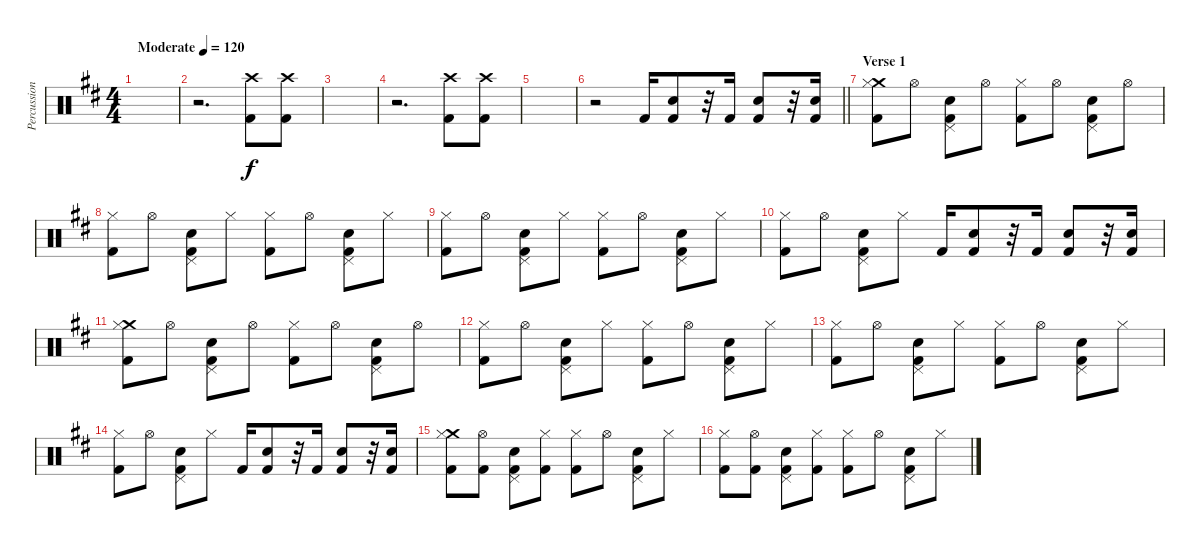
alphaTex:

\track ("Percussion: Boz Burrell" "Percussion") {instrument percussion}
\staff {score}
\articulation defaults
\ts (4 4)
\tempo (120 "Moderate")
\tempo 122
\tempo (120 "Moderate")
\clef neutral
\ks d
|
r.2{d} ("Crash high (hit)" "Kick (hit) 2").8 ("Crash high (hit)" "Kick (hit) 2").8 |
|
r.2{d} ("Crash high (hit)" "Kick (hit) 2").8 ("Crash high (hit)" "Kick (hit) 2").8 |
|
\barLineRight lightlight
r.2 "Kick (hit) 2".16 ("Snare (hit) 2" "Kick (hit) 2").8 r.32 "Kick (hit) 2".16 ("Snare (hit) 2" "Kick (hit) 2").8 r.32 ("Electric Snare (hit)" "Kick (hit) 2").16 |
\section ("" "Verse 1")
("Crash medium (hit)" "Hi-Hat (closed)" "Kick (hit) 2").8 "Hi-Hat (open)".8 ("Pedal Hi-Hat (hit)" "Snare (hit) 2" "Kick (hit) 2").8 "Hi-Hat (open)".8 ("Hi-Hat (closed)" "Kick (hit) 2").8 "Hi-Hat (open)".8 ("Pedal Hi-Hat (hit)" "Snare (hit) 2" "Kick (hit) 2").8 "Hi-Hat (open)".8 |
("Hi-Hat (closed)" "Kick (hit) 2").8 "Hi-Hat (open)".8 ("Pedal Hi-Hat (hit)" "Snare (hit) 2" "Kick (hit) 2").8 "Hi-Hat (closed)".8 ("Hi-Hat (closed)" "Kick (hit) 2").8 "Hi-Hat (open)".8 ("Pedal Hi-Hat (hit)" "Snare (hit) 2" "Kick (hit) 2").8 "Hi-Hat (closed)".8 |
("Hi-Hat (closed)" "Kick (hit) 2").8 "Hi-Hat (open)".8 ("Pedal Hi-Hat (hit)" "Snare (hit) 2" "Kick (hit) 2").8 "Hi-Hat (closed)".8 ("Hi-Hat (closed)" "Kick (hit) 2").8 "Hi-Hat (open)".8 ("Pedal Hi-Hat (hit)" "Snare (hit) 2" "Kick (hit) 2").8 "Hi-Hat (closed)".8 |
("Hi-Hat (closed)" "Kick (hit) 2").8 "Hi-Hat (open)".8 ("Pedal Hi-Hat (hit)" "Snare (hit) 2" "Kick (hit) 2").8 "Hi-Hat (closed)".8 "Kick (hit) 2".16 ("Snare (hit) 2" "Kick (hit) 2").8 r.32 "Kick (hit) 2".16 ("Snare (hit) 2" "Kick (hit) 2").8 r.32 ("Electric Snare (hit)" "Kick (hit) 2").16 |
("Crash medium (hit)" "Hi-Hat (closed)" "Kick (hit) 2").8 "Hi-Hat (open)".8 ("Pedal Hi-Hat (hit)" "Snare (hit) 2" "Kick (hit) 2").8 "Hi-Hat (open)".8 ("Hi-Hat (closed)" "Kick (hit) 2").8 "Hi-Hat (open)".8 ("Pedal Hi-Hat (hit)" "Snare (hit) 2" "Kick (hit) 2").8 "Hi-Hat (open)".8 |
("Hi-Hat (closed)" "Kick (hit) 2").8 "Hi-Hat (open)".8 ("Pedal Hi-Hat (hit)" "Snare (hit) 2" "Kick (hit) 2").8 "Hi-Hat (closed)".8 ("Hi-Hat (closed)" "Kick (hit) 2").8 "Hi-Hat (open)".8 ("Pedal Hi-Hat (hit)" "Snare (hit) 2" "Kick (hit) 2").8 "Hi-Hat (closed)".8 |
("Hi-Hat (closed)" "Kick (hit) 2").8 "Hi-Hat (open)".8 ("Pedal Hi-Hat (hit)" "Snare (hit) 2" "Kick (hit) 2").8 "Hi-Hat (closed)".8 ("Hi-Hat (closed)" "Kick (hit) 2").8 "Hi-Hat (open)".8 ("Pedal Hi-Hat (hit)" "Snare (hit) 2" "Kick (hit) 2").8 "Hi-Hat (closed)".8 |
("Hi-Hat (closed)" "Kick (hit) 2").8 "Hi-Hat (open)".8 ("Pedal Hi-Hat (hit)" "Snare (hit) 2" "Kick (hit) 2").8 "Hi-Hat (closed)".8 "Kick (hit) 2".16 ("Snare (hit) 2" "Kick (hit) 2").8 r.32 "Kick (hit) 2".16 ("Snare (hit) 2" "Kick (hit) 2").8 r.32 ("Electric Snare (hit)" "Kick (hit) 2").16 |
("Crash medium (hit)" "Hi-Hat (closed)" "Kick (hit) 2").8 ("Hi-Hat (open)" "Kick (hit) 2").8 ("Pedal Hi-Hat (hit)" "Snare (hit) 2" "Kick (hit) 2").8 ("Hi-Hat (closed)" "Kick (hit) 2").8 ("Hi-Hat (closed)" "Kick (hit) 2").8 "Hi-Hat (open)".8 ("Pedal Hi-Hat (hit)" "Snare (hit) 2" "Kick (hit) 2").8 "Hi-Hat (closed)".8 |
("Hi-Hat (closed)" "Kick (hit) 2").8 ("Hi-Hat (open)" "Kick (hit) 2").8 ("Pedal Hi-Hat (hit)" "Snare (hit) 2" "Kick (hit) 2").8 ("Hi-Hat (closed)" "Kick (hit) 2").8 ("Hi-Hat (closed)" "Kick (hit) 2").8 "Hi-Hat (open)".8 ("Pedal Hi-Hat (hit)" "Snare (hit) 2" "Kick (hit) 2").8 "Hi-Hat (closed)".8
